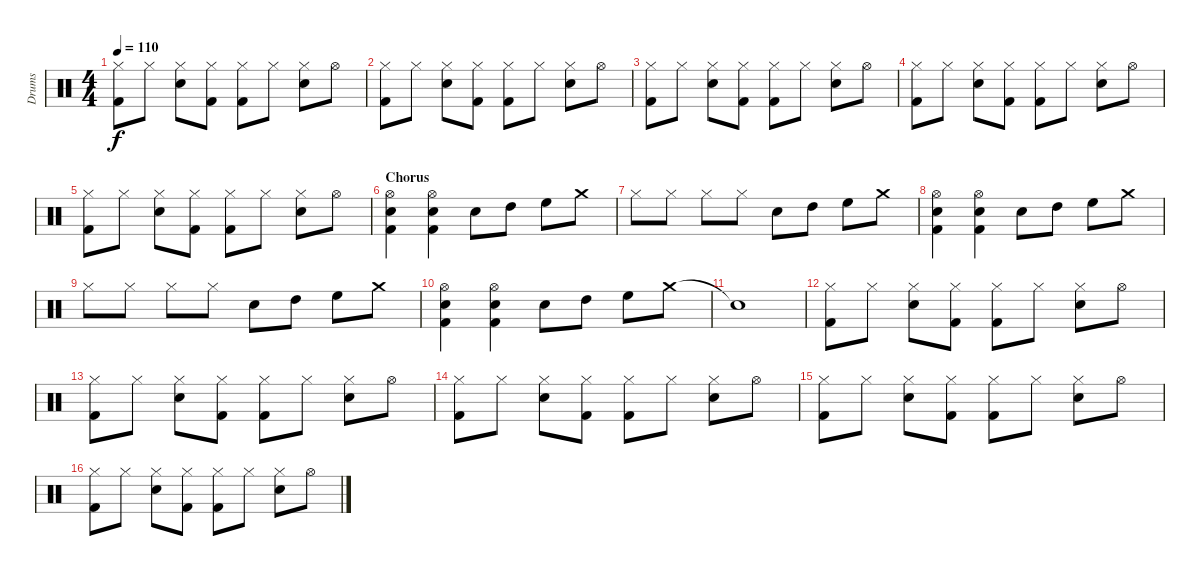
\track ("Drums" "Drums") {instrument percussion}
\staff {score}
\articulation defaults
\ts (4 4)
\tempo 110
\clef neutral
\ks c
("Hi-Hat (closed)" "Kick (hit) 2").8{dy f} "Hi-Hat (closed)".8 ("Hi-Hat (closed)" "Snare (hit) 2").8 ("Hi-Hat (closed)" "Kick (hit) 2").8 ("Hi-Hat (closed)" "Kick (hit) 2").8 "Hi-Hat (closed)".8 ("Hi-Hat (closed)" "Snare (hit) 2").8 "Hi-Hat (open)".8 |
("Hi-Hat (closed)" "Kick (hit) 2").8 "Hi-Hat (closed)".8 ("Hi-Hat (closed)" "Snare (hit) 2").8 ("Hi-Hat (closed)" "Kick (hit) 2").8 ("Hi-Hat (closed)" "Kick (hit) 2").8 "Hi-Hat (closed)".8 ("Hi-Hat (closed)" "Snare (hit) 2").8 "Hi-Hat (open)".8 |
("Hi-Hat (closed)" "Kick (hit) 2").8 "Hi-Hat (closed)".8 ("Hi-Hat (closed)" "Snare (hit) 2").8 ("Hi-Hat (closed)" "Kick (hit) 2").8 ("Hi-Hat (closed)" "Kick (hit) 2").8 "Hi-Hat (closed)".8 ("Hi-Hat (closed)" "Snare (hit) 2").8 "Hi-Hat (open)".8 |
("Hi-Hat (closed)" "Kick (hit) 2").8 "Hi-Hat (closed)".8 ("Hi-Hat (closed)" "Snare (hit) 2").8 ("Hi-Hat (closed)" "Kick (hit) 2").8 ("Hi-Hat (closed)" "Kick (hit) 2").8 "Hi-Hat (closed)".8 ("Hi-Hat (closed)" "Snare (hit) 2").8 "Hi-Hat (open)".8 |
("Hi-Hat (closed)" "Kick (hit) 2").8 "Hi-Hat (closed)".8 ("Hi-Hat (closed)" "Snare (hit) 2").8 ("Hi-Hat (closed)" "Kick (hit) 2").8 ("Hi-Hat (closed)" "Kick (hit) 2").8 "Hi-Hat (closed)".8 ("Hi-Hat (closed)" "Snare (hit) 2").8 "Hi-Hat (open)".8 |
\section ("" "Chorus")
("Snare (hit) 2" "Kick (hit) 2" "Hi-Hat (open)").4 ("Snare (hit) 2" "Kick (hit) 2" "Hi-Hat (open)").4 "Electric Snare (hit)".8 "High Tom (hit)".8 "High Floor Tom (hit)".8 "Crash medium (hit)".8 |
"Hi-Hat (closed)".8 "Hi-Hat (closed)".8 "Hi-Hat (closed)".8 "Hi-Hat (closed)".8 "Electric Snare (hit)".8 "High Tom (hit)".8 "High Floor Tom (hit)".8 "Crash medium (hit)".8 |
("Snare (hit) 2" "Kick (hit) 2" "Hi-Hat (open)").4 ("Snare (hit) 2" "Kick (hit) 2" "Hi-Hat (open)").4 "Electric Snare (hit)".8 "High Tom (hit)".8 "High Floor Tom (hit)".8 "Crash medium (hit)".8 |
"Hi-Hat (closed)".8 "Hi-Hat (closed)".8 "Hi-Hat (closed)".8 "Hi-Hat (closed)".8 "Electric Snare (hit)".8 "High Tom (hit)".8 "High Floor Tom (hit)".8 "Crash medium (hit)".8 |
("Snare (hit) 2" "Kick (hit) 2" "Hi-Hat (open)").4 ("Snare (hit) 2" "Kick (hit) 2" "Hi-Hat (open)").4 "Electric Snare (hit)".8 "High Tom (hit)".8 "High Floor Tom (hit)".8 "Crash medium (hit)".8 |
"Snare (hit)"{t}.1 |
("Hi-Hat (closed)" "Kick (hit) 2").8 "Hi-Hat (closed)".8 ("Hi-Hat (closed)" "Snare (hit) 2").8 ("Hi-Hat (closed)" "Kick (hit) 2").8 ("Hi-Hat (closed)" "Kick (hit) 2").8 "Hi-Hat (closed)".8 ("Hi-Hat (closed)" "Snare (hit) 2").8 "Hi-Hat (open)".8 |
("Hi-Hat (closed)" "Kick (hit) 2").8 "Hi-Hat (closed)".8 ("Hi-Hat (closed)" "Snare (hit) 2").8 ("Hi-Hat (closed)" "Kick (hit) 2").8 ("Hi-Hat (closed)" "Kick (hit) 2").8 "Hi-Hat (closed)".8 ("Hi-Hat (closed)" "Snare (hit) 2").8 "Hi-Hat (open)".8 |
("Hi-Hat (closed)" "Kick (hit) 2").8 "Hi-Hat (closed)".8 ("Hi-Hat (closed)" "Snare (hit) 2").8 ("Hi-Hat (closed)" "Kick (hit) 2").8 ("Hi-Hat (closed)" "Kick (hit) 2").8 "Hi-Hat (closed)".8 ("Hi-Hat (closed)" "Snare (hit) 2").8 "Hi-Hat (open)".8 |
("Hi-Hat (closed)" "Kick (hit) 2").8 "Hi-Hat (closed)".8 ("Hi-Hat (closed)" "Snare (hit) 2").8 ("Hi-Hat (closed)" "Kick (hit) 2").8 ("Hi-Hat (closed)" "Kick (hit) 2").8 "Hi-Hat (closed)".8 ("Hi-Hat (closed)" "Snare (hit) 2").8 "Hi-Hat (open)".8 |
("Hi-Hat (closed)" "Kick (hit) 2").8 "Hi-Hat (closed)".8 ("Hi-Hat (closed)" "Snare (hit) 2").8 ("Hi-Hat (closed)" "Kick (hit) 2").8 ("Hi-Hat (closed)" "Kick (hit) 2").8 "Hi-Hat (closed)".8 ("Hi-Hat (closed)" "Snare (hit) 2").8 "Hi-Hat (open)".8
